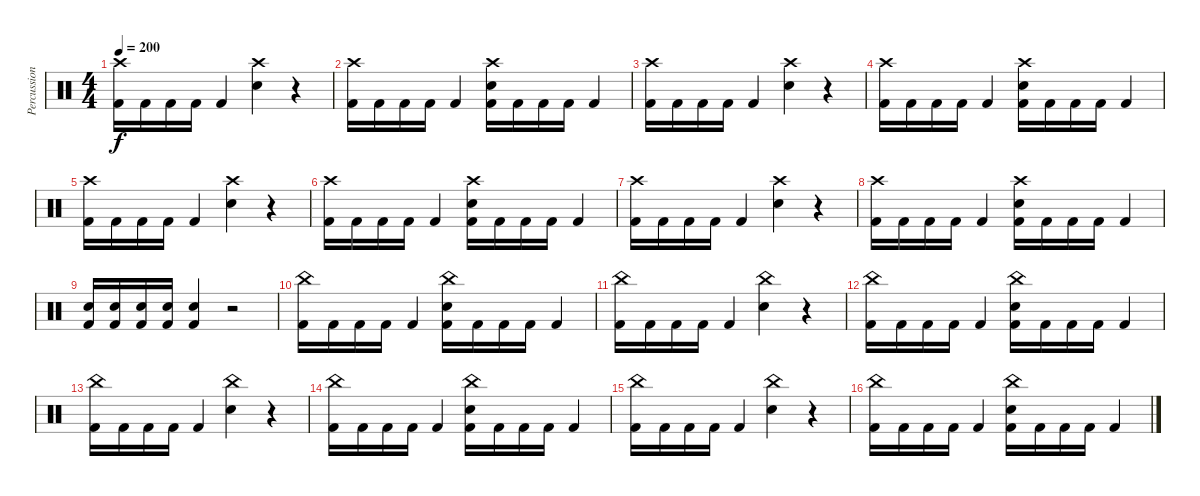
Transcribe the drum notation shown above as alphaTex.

\track ("Percussion" "Percussion") {instrument percussion}
\staff {score}
\articulation defaults
\ts (4 4)
\tempo 200
\clef neutral
\ks c
("Crash high (hit)" "Kick (hit) 2").16{dy f} "Kick (hit) 2".16 "Kick (hit) 2".16 "Kick (hit) 2".16 "Kick (hit) 2".4 ("Crash high (hit)" "Electric Snare (hit)").4 r.4 |
("Crash high (hit)" "Kick (hit) 2").16 "Kick (hit) 2".16 "Kick (hit) 2".16 "Kick (hit) 2".16 "Kick (hit) 2".4 ("Crash high (hit)" "Electric Snare (hit)" "Kick (hit) 2").16 "Kick (hit) 2".16 "Kick (hit) 2".16 "Kick (hit) 2".16 "Kick (hit) 2".4 |
("Crash high (hit)" "Kick (hit) 2").16 "Kick (hit) 2".16 "Kick (hit) 2".16 "Kick (hit) 2".16 "Kick (hit) 2".4 ("Crash high (hit)" "Electric Snare (hit)").4 r.4 |
("Crash high (hit)" "Kick (hit) 2").16 "Kick (hit) 2".16 "Kick (hit) 2".16 "Kick (hit) 2".16 "Kick (hit) 2".4 ("Crash high (hit)" "Electric Snare (hit)" "Kick (hit) 2").16 "Kick (hit) 2".16 "Kick (hit) 2".16 "Kick (hit) 2".16 "Kick (hit) 2".4 |
("Crash high (hit)" "Kick (hit) 2").16 "Kick (hit) 2".16 "Kick (hit) 2".16 "Kick (hit) 2".16 "Kick (hit) 2".4 ("Crash high (hit)" "Electric Snare (hit)").4 r.4 |
("Crash high (hit)" "Kick (hit) 2").16 "Kick (hit) 2".16 "Kick (hit) 2".16 "Kick (hit) 2".16 "Kick (hit) 2".4 ("Crash high (hit)" "Electric Snare (hit)" "Kick (hit) 2").16 "Kick (hit) 2".16 "Kick (hit) 2".16 "Kick (hit) 2".16 "Kick (hit) 2".4 |
("Crash high (hit)" "Kick (hit) 2").16 "Kick (hit) 2".16 "Kick (hit) 2".16 "Kick (hit) 2".16 "Kick (hit) 2".4 ("Crash high (hit)" "Electric Snare (hit)").4 r.4 |
("Crash high (hit)" "Kick (hit) 2").16 "Kick (hit) 2".16 "Kick (hit) 2".16 "Kick (hit) 2".16 "Kick (hit) 2".4 ("Crash high (hit)" "Electric Snare (hit)" "Kick (hit) 2").16 "Kick (hit) 2".16 "Kick (hit) 2".16 "Kick (hit) 2".16 "Kick (hit) 2".4 |
("Electric Snare (hit)" "Kick (hit) 2").16 ("Electric Snare (hit)" "Kick (hit) 2").16 ("Electric Snare (hit)" "Kick (hit) 2").16 ("Electric Snare (hit)" "Kick (hit) 2").16 ("Electric Snare (hit)" "Kick (hit) 2").4 r.2 |
("China (hit)" "Kick (hit) 2").16 "Kick (hit) 2".16 "Kick (hit) 2".16 "Kick (hit) 2".16 "Kick (hit) 2".4 ("China (hit)" "Electric Snare (hit)" "Kick (hit) 2").16 "Kick (hit) 2".16 "Kick (hit) 2".16 "Kick (hit) 2".16 "Kick (hit) 2".4 |
("China (hit)" "Kick (hit) 2").16 "Kick (hit) 2".16 "Kick (hit) 2".16 "Kick (hit) 2".16 "Kick (hit) 2".4 ("China (hit)" "Electric Snare (hit)").4 r.4 |
("China (hit)" "Kick (hit) 2").16 "Kick (hit) 2".16 "Kick (hit) 2".16 "Kick (hit) 2".16 "Kick (hit) 2".4 ("China (hit)" "Electric Snare (hit)" "Kick (hit) 2").16 "Kick (hit) 2".16 "Kick (hit) 2".16 "Kick (hit) 2".16 "Kick (hit) 2".4 |
("China (hit)" "Kick (hit) 2").16 "Kick (hit) 2".16 "Kick (hit) 2".16 "Kick (hit) 2".16 "Kick (hit) 2".4 ("China (hit)" "Electric Snare (hit)").4 r.4 |
("China (hit)" "Kick (hit) 2").16 "Kick (hit) 2".16 "Kick (hit) 2".16 "Kick (hit) 2".16 "Kick (hit) 2".4 ("China (hit)" "Electric Snare (hit)" "Kick (hit) 2").16 "Kick (hit) 2".16 "Kick (hit) 2".16 "Kick (hit) 2".16 "Kick (hit) 2".4 |
("China (hit)" "Kick (hit) 2").16 "Kick (hit) 2".16 "Kick (hit) 2".16 "Kick (hit) 2".16 "Kick (hit) 2".4 ("China (hit)" "Electric Snare (hit)").4 r.4 |
("China (hit)" "Kick (hit) 2").16 "Kick (hit) 2".16 "Kick (hit) 2".16 "Kick (hit) 2".16 "Kick (hit) 2".4 ("China (hit)" "Electric Snare (hit)" "Kick (hit) 2").16 "Kick (hit) 2".16 "Kick (hit) 2".16 "Kick (hit) 2".16 "Kick (hit) 2".4
